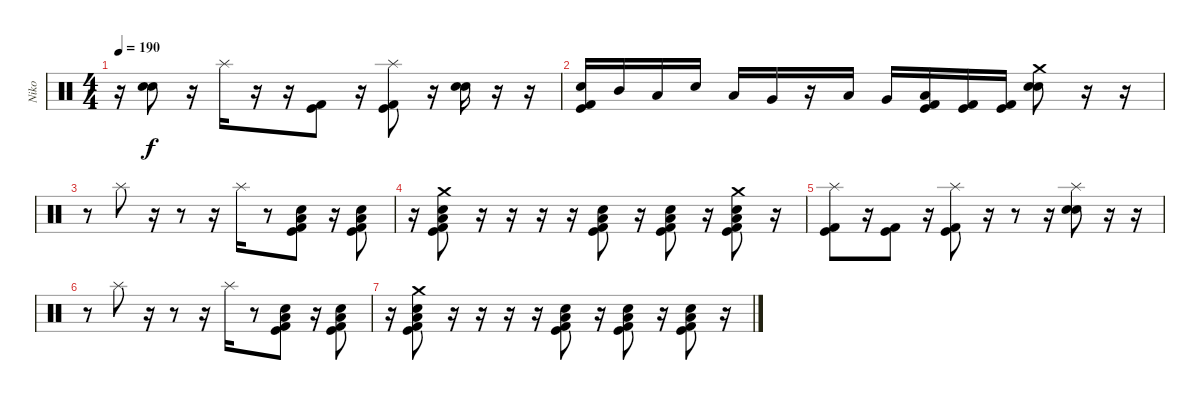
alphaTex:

\track ("Niko" "Niko") {instrument percussion}
\staff {score}
\articulation defaults
\ts (4 4)
\tempo 190
\clef neutral
\ks c
r.16{dy f} ("Electric Snare (hit)" "Electric Snare (hit)").8 r.16 "Splash (hit)".16 r.16 r.16 ("Kick (hit) 2" "Kick (hit)").8 r.16 ("Splash (hit)" "Kick (hit) 2" "Kick (hit)").8 r.16 ("Electric Snare (hit)" "Electric Snare (hit)").16 r.16 r.16 |
("Electric Snare (hit)" "Kick (hit) 2" "Kick (hit)").16 "Mid Tom (hit)".16 "Low Tom (hit)".16 "Electric Snare (hit)".16 "Low Tom (hit)".16 "Very Low Tom (hit)".16 r.16 "Low Tom (hit)".16 "Very Low Tom (hit)".16 ("Low Floor Tom (hit)" "Kick (hit) 2" "Kick (hit)").16 ("Kick (hit)" "Kick (hit) 2").16 ("Kick (hit) 2" "Kick (hit)").16 ("Crash medium (hit)" "Electric Snare (hit)" "Electric Snare (hit)").8 r.16 r.16 |
r.8 "Splash (hit)".8 r.16 r.8 r.16 "Splash (hit)".16 r.8 ("Electric Snare (hit)" "Low Floor Tom (hit)" "Kick (hit) 2" "Kick (hit)").8 r.16 ("Electric Snare (hit)" "Low Floor Tom (hit)" "Kick (hit) 2" "Kick (hit)").8 |
r.16 ("Crash medium (hit)" "Electric Snare (hit)" "Low Floor Tom (hit)" "Kick (hit)" "Kick (hit) 2").8 r.16 r.16 r.16 r.16 ("Low Floor Tom (hit)" "Electric Snare (hit)" "Kick (hit) 2" "Kick (hit)").8 r.16 ("Low Floor Tom (hit)" "Electric Snare (hit)" "Kick (hit) 2" "Kick (hit)").8 r.16 ("Crash medium (hit)" "Electric Snare (hit)" "Low Floor Tom (hit)" "Kick (hit) 2" "Kick (hit)").8 r.16 |
("Splash (hit)" "Kick (hit) 2" "Kick (hit)").8 r.16 ("Kick (hit) 2" "Kick (hit)").8 r.16 ("Splash (hit)" "Kick (hit)" "Kick (hit) 2").8 r.16 r.8 r.16 ("Splash (hit)" "Electric Snare (hit)" "Electric Snare (hit)").8 r.16 r.16 |
r.8 "Splash (hit)".8 r.16 r.8 r.16 "Splash (hit)".16 r.8 ("Electric Snare (hit)" "Low Floor Tom (hit)" "Kick (hit) 2" "Kick (hit)").8 r.16 ("Electric Snare (hit)" "Low Floor Tom (hit)" "Kick (hit) 2" "Kick (hit)").8 |
r.16 ("Crash medium (hit)" "Electric Snare (hit)" "Low Floor Tom (hit)" "Kick (hit)" "Kick (hit) 2").8 r.16 r.16 r.16 r.16 ("Low Floor Tom (hit)" "Electric Snare (hit)" "Kick (hit) 2" "Kick (hit)").8 r.16 ("Low Floor Tom (hit)" "Electric Snare (hit)" "Kick (hit) 2" "Kick (hit)").8 r.16 ("Electric Snare (hit)" "Low Floor Tom (hit)" "Kick (hit) 2" "Kick (hit)").8 r.16
